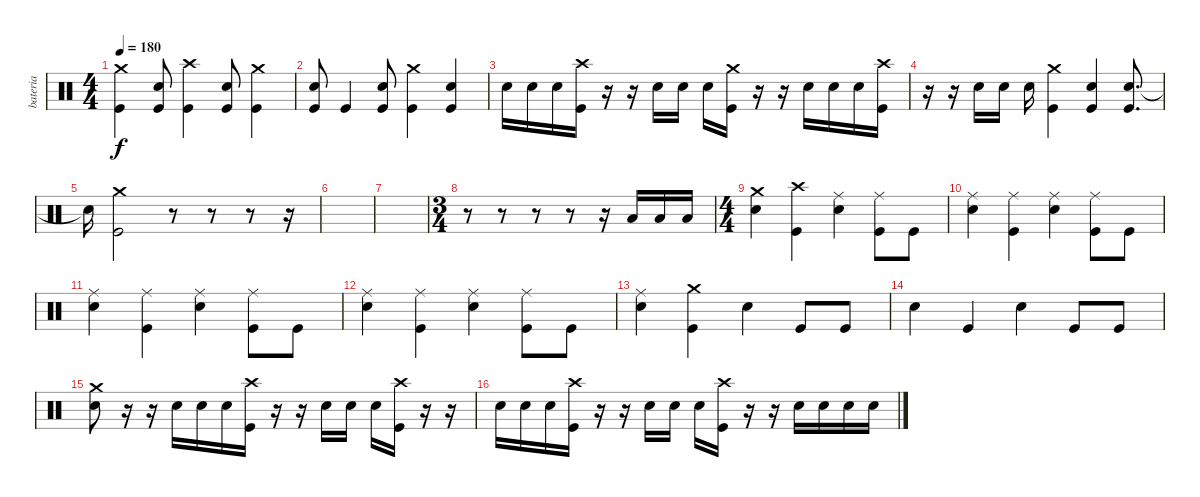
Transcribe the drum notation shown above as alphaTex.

\track ("bateria" "bateria") {instrument percussion}
\staff {score}
\articulation defaults
\ts (4 4)
\tempo 180
\clef neutral
\ks c
("Crash medium (hit)" "Kick (hit)").4{dy f} ("Electric Snare (hit)" "Kick (hit)").8 ("Crash high (hit)" "Kick (hit)").4 ("Electric Snare (hit)" "Kick (hit)").8 ("Crash medium (hit)" "Kick (hit)").4 |
("Electric Snare (hit)" "Kick (hit)").8 "Kick (hit)".4 ("Electric Snare (hit)" "Kick (hit)").8 ("Crash medium (hit)" "Kick (hit)").4 ("Electric Snare (hit)" "Kick (hit)").4 |
"Electric Snare (hit)".16 "Electric Snare (hit)".16 "Electric Snare (hit)".16 ("Crash high (hit)" "Kick (hit)").16 r.16 r.16 "Electric Snare (hit)".16 "Electric Snare (hit)".16 "Electric Snare (hit)".16 ("Crash medium (hit)" "Kick (hit)").16 r.16 r.16 "Electric Snare (hit)".16 "Electric Snare (hit)".16 "Electric Snare (hit)".16 ("Crash high (hit)" "Kick (hit)").16 |
r.16 r.16 "Electric Snare (hit)".16 "Electric Snare (hit)".16 "Electric Snare (hit)".16 ("Crash medium (hit)" "Kick (hit)").4 ("Electric Snare (hit)" "Kick (hit)").4 ("Electric Snare (hit)" "Kick (hit)").8{d} |
"Snare (hit)"{t}.16 ("Crash medium (hit)" "Kick (hit)").2 r.8 r.8 r.8 r.16 |
|
|
\ts (3 4)
r.8 r.8 r.8 r.8 r.16 "Low Tom (hit)".16 "Low Tom (hit)".16 "Low Tom (hit)".16 |
\ts (4 4)
("Crash medium (hit)" "Electric Snare (hit)").4 ("Crash high (hit)" "Kick (hit)").4 ("Ride (middle)" "Electric Snare (hit)").4 ("Ride (middle)" "Kick (hit)").8 "Kick (hit)".8 |
("Ride (middle)" "Electric Snare (hit)").4 ("Ride (middle)" "Kick (hit)").4 ("Ride (middle)" "Electric Snare (hit)").4 ("Ride (middle)" "Kick (hit)").8 "Kick (hit)".8 |
("Ride (middle)" "Electric Snare (hit)").4 ("Ride (middle)" "Kick (hit)").4 ("Ride (middle)" "Electric Snare (hit)").4 ("Ride (middle)" "Kick (hit)").8 "Kick (hit)".8 |
("Ride (middle)" "Electric Snare (hit)").4 ("Ride (middle)" "Kick (hit)").4 ("Ride (middle)" "Electric Snare (hit)").4 ("Ride (middle)" "Kick (hit)").8 "Kick (hit)".8 |
("Ride (middle)" "Electric Snare (hit)").4 ("Crash medium (hit)" "Kick (hit)").4 "Electric Snare (hit)".4 "Kick (hit)".8 "Kick (hit)".8 |
"Electric Snare (hit)".4 "Kick (hit)".4 "Electric Snare (hit)".4 "Kick (hit)".8 "Kick (hit)".8 |
("Crash medium (hit)" "Electric Snare (hit)").8 r.16 r.16 "Electric Snare (hit)".16 "Electric Snare (hit)".16 "Electric Snare (hit)".16 ("Crash high (hit)" "Kick (hit)").16 r.16 r.16 "Electric Snare (hit)".16 "Electric Snare (hit)".16 "Electric Snare (hit)".16 ("Crash high (hit)" "Kick (hit)").16 r.16 r.16 |
"Electric Snare (hit)".16 "Electric Snare (hit)".16 "Electric Snare (hit)".16 ("Crash high (hit)" "Kick (hit)").16 r.16 r.16 "Electric Snare (hit)".16 "Electric Snare (hit)".16 "Electric Snare (hit)".16 ("Crash high (hit)" "Kick (hit)").16 r.16 r.16 "Electric Snare (hit)".16 "Electric Snare (hit)".16 "Electric Snare (hit)".16 "Electric Snare (hit)".16
